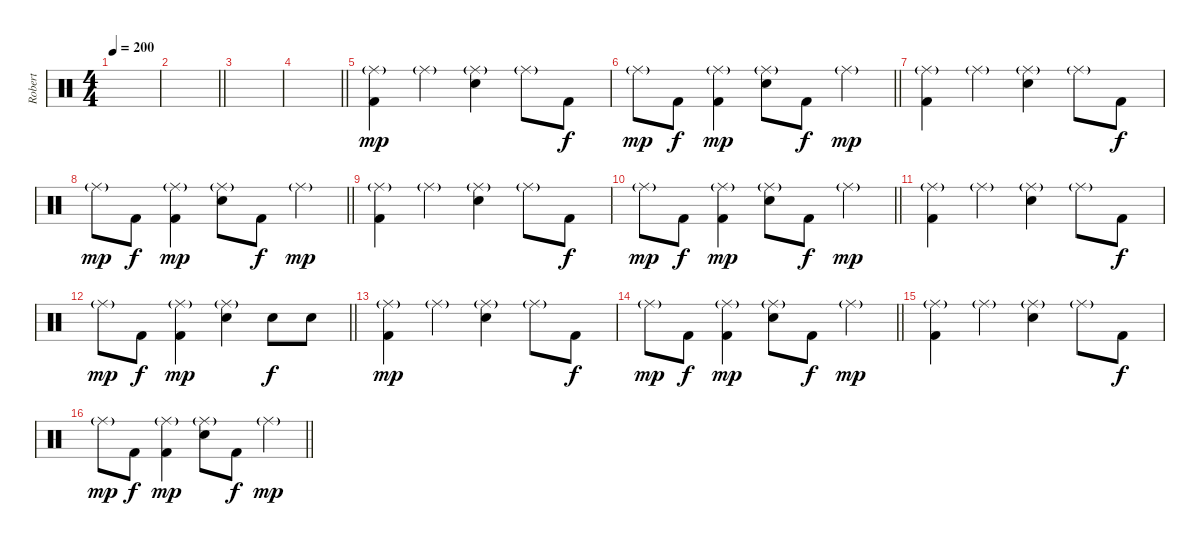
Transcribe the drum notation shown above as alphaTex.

\track ("Robert" "Robert") {instrument percussion}
\staff {score}
\articulation defaults
\ts (4 4)
\tempo 200
\clef neutral
\ks c
|
\barLineRight lightlight
|
|
\barLineRight lightlight
|
("Ride (middle)"{g} "Kick (hit) 2").4{dy mp} "Ride (middle)"{g}.4 ("Ride (middle)"{g} "Electric Snare (hit)").4 "Ride (middle)"{g}.8 "Kick (hit) 2".8{dy f} |
\barLineRight lightlight "Ride (middle)"{g}.8{dy mp} "Kick (hit) 2".8{dy f}
("Ride (middle)"{g} "Kick (hit) 2").4{dy mp} ("Ride (middle)"{g} "Electric Snare (hit)").8 "Kick (hit) 2".8{dy f} "Ride (middle)"{g}.4{dy mp} |
("Ride (middle)"{g} "Kick (hit) 2").4 "Ride (middle)"{g}.4 ("Ride (middle)"{g} "Electric Snare (hit)").4 "Ride (middle)"{g}.8 "Kick (hit) 2".8{dy f} |
\barLineRight lightlight "Ride (middle)"{g}.8{dy mp} "Kick (hit) 2".8{dy f}
("Ride (middle)"{g} "Kick (hit) 2").4{dy mp} ("Ride (middle)"{g} "Electric Snare (hit)").8 "Kick (hit) 2".8{dy f} "Ride (middle)"{g}.4{dy mp} |
("Ride (middle)"{g} "Kick (hit) 2").4 "Ride (middle)"{g}.4 ("Ride (middle)"{g} "Electric Snare (hit)").4 "Ride (middle)"{g}.8 "Kick (hit) 2".8{dy f} |
\barLineRight lightlight "Ride (middle)"{g}.8{dy mp} "Kick (hit) 2".8{dy f}
("Ride (middle)"{g} "Kick (hit) 2").4{dy mp} ("Ride (middle)"{g} "Electric Snare (hit)").8 "Kick (hit) 2".8{dy f} "Ride (middle)"{g}.4{dy mp} |
("Ride (middle)"{g} "Kick (hit) 2").4 "Ride (middle)"{g}.4 ("Ride (middle)"{g} "Electric Snare (hit)").4 "Ride (middle)"{g}.8 "Kick (hit) 2".8{dy f} |
\barLineRight lightlight "Ride (middle)"{g}.8{dy mp} "Kick (hit) 2".8{dy f}
("Ride (middle)"{g} "Kick (hit) 2").4{dy mp} ("Ride (middle)"{g} "Electric Snare (hit)").4 "Electric Snare (hit)".8{dy f} "Electric Snare (hit)".8 |
("Ride (middle)"{g} "Kick (hit) 2").4{dy mp} "Ride (middle)"{g}.4 ("Ride (middle)"{g} "Electric Snare (hit)").4 "Ride (middle)"{g}.8 "Kick (hit) 2".8{dy f} |
\barLineRight lightlight "Ride (middle)"{g}.8{dy mp} "Kick (hit) 2".8{dy f}
("Ride (middle)"{g} "Kick (hit) 2").4{dy mp} ("Ride (middle)"{g} "Electric Snare (hit)").8 "Kick (hit) 2".8{dy f} "Ride (middle)"{g}.4{dy mp} |
("Ride (middle)"{g} "Kick (hit) 2").4 "Ride (middle)"{g}.4 ("Ride (middle)"{g} "Electric Snare (hit)").4 "Ride (middle)"{g}.8 "Kick (hit) 2".8{dy f} |
\barLineRight lightlight "Ride (middle)"{g}.8{dy mp} "Kick (hit) 2".8{dy f}
("Ride (middle)"{g} "Kick (hit) 2").4{dy mp} ("Ride (middle)"{g} "Electric Snare (hit)").8 "Kick (hit) 2".8{dy f} "Ride (middle)"{g}.4{dy mp}
